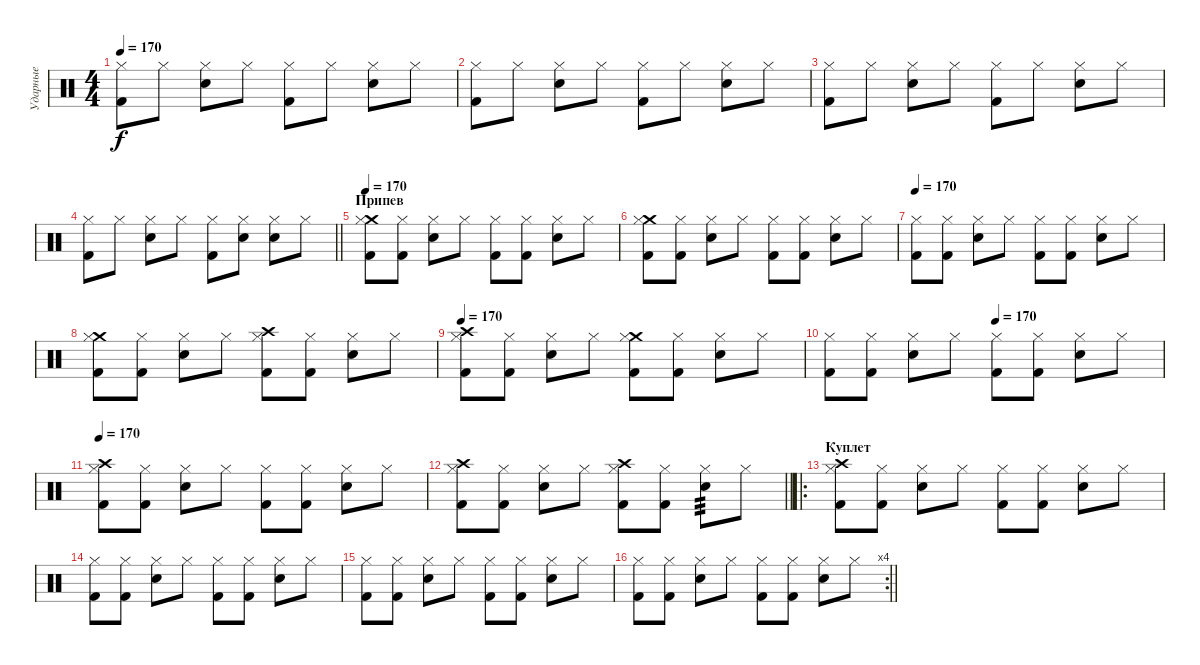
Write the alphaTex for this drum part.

\track ("Ударные" "Ударные") {instrument percussion}
\staff {score}
\articulation defaults
\ts (4 4)
\tempo 170
\clef neutral
\ks c
("Kick (hit) 2" "Hi-Hat (closed)").8{dy f} "Hi-Hat (closed)".8 ("Snare (hit) 2" "Hi-Hat (closed)").8 "Hi-Hat (closed)".8 ("Kick (hit) 2" "Hi-Hat (closed)").8 "Hi-Hat (closed)".8 ("Snare (hit) 2" "Hi-Hat (closed)").8 "Hi-Hat (closed)".8 |
("Kick (hit) 2" "Hi-Hat (closed)").8 "Hi-Hat (closed)".8 ("Snare (hit) 2" "Hi-Hat (closed)").8 "Hi-Hat (closed)".8 ("Kick (hit) 2" "Hi-Hat (closed)").8 "Hi-Hat (closed)".8 ("Snare (hit) 2" "Hi-Hat (closed)").8 "Hi-Hat (closed)".8 |
("Kick (hit) 2" "Hi-Hat (closed)").8 "Hi-Hat (closed)".8 ("Snare (hit) 2" "Hi-Hat (closed)").8 "Hi-Hat (closed)".8 ("Kick (hit) 2" "Hi-Hat (closed)").8 "Hi-Hat (closed)".8 ("Snare (hit) 2" "Hi-Hat (closed)").8 "Hi-Hat (closed)".8 |
\barLineRight lightlight
("Kick (hit) 2" "Hi-Hat (closed)").8 "Hi-Hat (closed)".8 ("Snare (hit) 2" "Hi-Hat (closed)").8 "Hi-Hat (closed)".8 ("Kick (hit) 2" "Hi-Hat (closed)").8 ("Snare (hit) 2" "Hi-Hat (closed)").8 ("Snare (hit) 2" "Hi-Hat (closed)").8 "Hi-Hat (closed)".8 |
\section ("" "Припев")
\tempo 170
("Crash medium (hit)" "Kick (hit) 2" "Hi-Hat (closed)").8 ("Kick (hit) 2" "Hi-Hat (closed)").8 ("Snare (hit) 2" "Hi-Hat (closed)").8 "Hi-Hat (closed)".8 ("Kick (hit) 2" "Hi-Hat (closed)").8 ("Kick (hit) 2" "Hi-Hat (closed)").8 ("Snare (hit) 2" "Hi-Hat (closed)").8 "Hi-Hat (closed)".8 |
("Crash medium (hit)" "Kick (hit) 2" "Hi-Hat (closed)").8 ("Kick (hit) 2" "Hi-Hat (closed)").8 ("Snare (hit) 2" "Hi-Hat (closed)").8 "Hi-Hat (closed)".8 ("Kick (hit) 2" "Hi-Hat (closed)").8 ("Kick (hit) 2" "Hi-Hat (closed)").8 ("Snare (hit) 2" "Hi-Hat (closed)").8 "Hi-Hat (closed)".8 |
\tempo 170
("Kick (hit) 2" "Hi-Hat (closed)").8 ("Kick (hit) 2" "Hi-Hat (closed)").8 ("Snare (hit) 2" "Hi-Hat (closed)").8 "Hi-Hat (closed)".8 ("Kick (hit) 2" "Hi-Hat (closed)").8 ("Kick (hit) 2" "Hi-Hat (closed)").8 ("Snare (hit) 2" "Hi-Hat (closed)").8 "Hi-Hat (closed)".8 |
("Crash medium (hit)" "Kick (hit) 2" "Hi-Hat (closed)").8 ("Kick (hit) 2" "Hi-Hat (closed)").8 ("Snare (hit) 2" "Hi-Hat (closed)").8 "Hi-Hat (closed)".8 ("Crash high (hit)" "Kick (hit) 2" "Hi-Hat (closed)").8 ("Kick (hit) 2" "Hi-Hat (closed)").8 ("Snare (hit) 2" "Hi-Hat (closed)").8 "Hi-Hat (closed)".8 |
\tempo 170
("Crash high (hit)" "Kick (hit) 2" "Hi-Hat (closed)").8 ("Kick (hit) 2" "Hi-Hat (closed)").8 ("Snare (hit) 2" "Hi-Hat (closed)").8 "Hi-Hat (closed)".8 ("Crash medium (hit)" "Kick (hit) 2" "Hi-Hat (closed)").8 ("Kick (hit) 2" "Hi-Hat (closed)").8 ("Snare (hit) 2" "Hi-Hat (closed)").8 "Hi-Hat (closed)".8 |
\tempo (170 0.5)
("Kick (hit) 2" "Hi-Hat (closed)").8 ("Kick (hit) 2" "Hi-Hat (closed)").8 ("Snare (hit) 2" "Hi-Hat (closed)").8 "Hi-Hat (closed)".8 ("Kick (hit) 2" "Hi-Hat (closed)").8 ("Kick (hit) 2" "Hi-Hat (closed)").8 ("Snare (hit) 2" "Hi-Hat (closed)").8 "Hi-Hat (closed)".8 |
\tempo 170
("Crash high (hit)" "Kick (hit) 2" "Hi-Hat (closed)").8 ("Kick (hit) 2" "Hi-Hat (closed)").8 ("Snare (hit) 2" "Hi-Hat (closed)").8 "Hi-Hat (closed)".8 ("Kick (hit) 2" "Hi-Hat (closed)").8 ("Kick (hit) 2" "Hi-Hat (closed)").8 ("Snare (hit) 2" "Hi-Hat (closed)").8 "Hi-Hat (closed)".8 |
\barLineRight lightlight
("Crash high (hit)" "Kick (hit) 2" "Hi-Hat (closed)").8 ("Kick (hit) 2" "Hi-Hat (closed)").8 ("Snare (hit) 2" "Hi-Hat (closed)").8 "Hi-Hat (closed)".8 ("Crash high (hit)" "Kick (hit) 2" "Hi-Hat (closed)").8 ("Kick (hit) 2" "Hi-Hat (closed)").8 ("Snare (hit) 2" "Hi-Hat (closed)").8{tp 3} "Hi-Hat (closed)".8 |
\ro
\section ("" "Куплет")
("Crash high (hit)" "Kick (hit) 2" "Hi-Hat (closed)").8 ("Kick (hit) 2" "Hi-Hat (closed)").8 ("Snare (hit) 2" "Hi-Hat (closed)").8 "Hi-Hat (closed)".8 ("Kick (hit) 2" "Hi-Hat (closed)").8 ("Kick (hit) 2" "Hi-Hat (closed)").8 ("Snare (hit) 2" "Hi-Hat (closed)").8 "Hi-Hat (closed)".8 |
("Kick (hit) 2" "Hi-Hat (closed)").8 ("Kick (hit) 2" "Hi-Hat (closed)").8 ("Snare (hit) 2" "Hi-Hat (closed)").8 "Hi-Hat (closed)".8 ("Kick (hit) 2" "Hi-Hat (closed)").8 ("Kick (hit) 2" "Hi-Hat (closed)").8 ("Snare (hit) 2" "Hi-Hat (closed)").8 "Hi-Hat (closed)".8 |
("Kick (hit) 2" "Hi-Hat (closed)").8 ("Kick (hit) 2" "Hi-Hat (closed)").8 ("Snare (hit) 2" "Hi-Hat (closed)").8 "Hi-Hat (closed)".8 ("Kick (hit) 2" "Hi-Hat (closed)").8 ("Kick (hit) 2" "Hi-Hat (closed)").8 ("Snare (hit) 2" "Hi-Hat (closed)").8 "Hi-Hat (closed)".8 |
\rc 4
\barLineRight lightlight
("Kick (hit) 2" "Hi-Hat (closed)").8 ("Kick (hit) 2" "Hi-Hat (closed)").8 ("Snare (hit) 2" "Hi-Hat (closed)").8 "Hi-Hat (closed)".8 ("Kick (hit) 2" "Hi-Hat (closed)").8 ("Kick (hit) 2" "Hi-Hat (closed)").8 ("Snare (hit) 2" "Hi-Hat (closed)").8 "Hi-Hat (closed)".8
